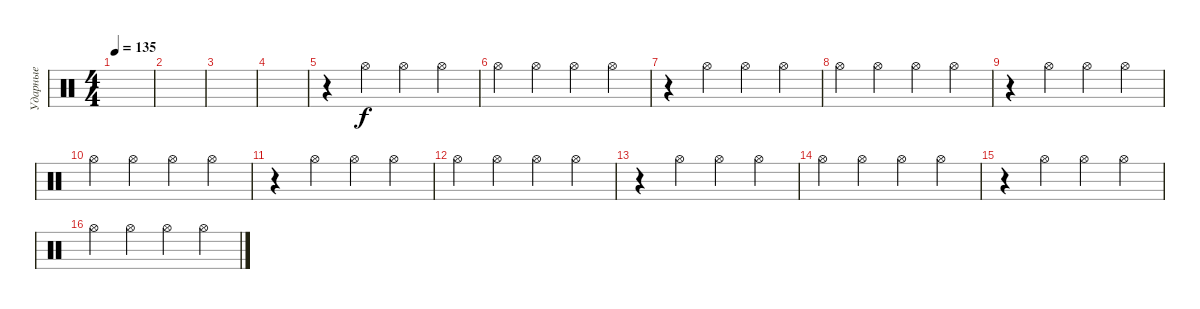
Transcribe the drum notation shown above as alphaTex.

\track ("Ударные" "Ударные") {instrument percussion}
\staff {score}
\articulation defaults
\ts (4 4)
\tempo 135
\clef neutral
\ks c
|
|
|
|
r.4 "Hi-Hat (open)".4 "Hi-Hat (open)".4 "Hi-Hat (open)".4 |
"Hi-Hat (open)".4 "Hi-Hat (open)".4 "Hi-Hat (open)".4 "Hi-Hat (open)".4 |
r.4 "Hi-Hat (open)".4 "Hi-Hat (open)".4 "Hi-Hat (open)".4 |
"Hi-Hat (open)".4 "Hi-Hat (open)".4 "Hi-Hat (open)".4 "Hi-Hat (open)".4 |
r.4 "Hi-Hat (open)".4 "Hi-Hat (open)".4 "Hi-Hat (open)".4 |
"Hi-Hat (open)".4 "Hi-Hat (open)".4 "Hi-Hat (open)".4 "Hi-Hat (open)".4 |
r.4 "Hi-Hat (open)".4 "Hi-Hat (open)".4 "Hi-Hat (open)".4 |
"Hi-Hat (open)".4 "Hi-Hat (open)".4 "Hi-Hat (open)".4 "Hi-Hat (open)".4 |
r.4 "Hi-Hat (open)".4 "Hi-Hat (open)".4 "Hi-Hat (open)".4 |
"Hi-Hat (open)".4 "Hi-Hat (open)".4 "Hi-Hat (open)".4 "Hi-Hat (open)".4 |
r.4 "Hi-Hat (open)".4 "Hi-Hat (open)".4 "Hi-Hat (open)".4 |
"Hi-Hat (open)".4 "Hi-Hat (open)".4 "Hi-Hat (open)".4 "Hi-Hat (open)".4
